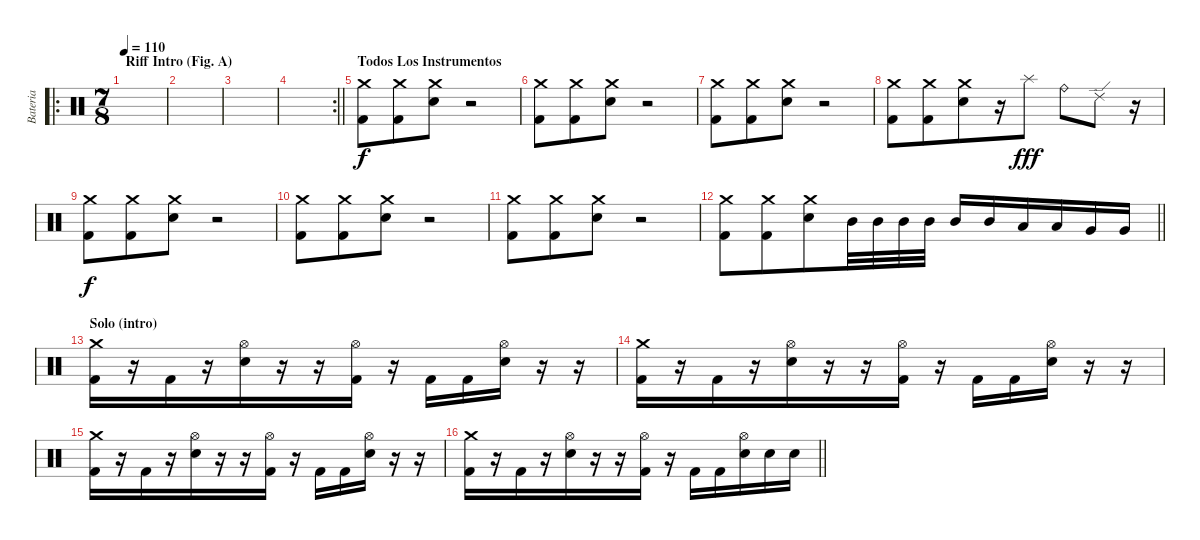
\track ("Bateria " "Bateria ") {instrument percussion}
\staff {score}
\articulation defaults
\ro
\ts (7 8)
\section ("" "Riff Intro (Fig. A)")
\tempo 110
\clef neutral
\ks c
|
|
|
\rc 2
\barLineRight lightlight
|
\section ("" "Todos Los Instrumentos")
("Crash medium (hit)" "Kick (hit) 2").8 ("Crash medium (hit)" "Kick (hit) 2").8 ("Crash medium (hit)" "Electric Snare (hit)").8 r.2 |
("Crash medium (hit)" "Kick (hit) 2").8 ("Crash medium (hit)" "Kick (hit) 2").8 ("Crash medium (hit)" "Electric Snare (hit)").8 r.2 |
("Crash medium (hit)" "Kick (hit) 2").8 ("Crash medium (hit)" "Kick (hit) 2").8 ("Crash medium (hit)" "Electric Snare (hit)").8 r.2 |
("Crash medium (hit)" "Kick (hit) 2").8 ("Crash medium (hit)" "Kick (hit) 2").8 ("Crash medium (hit)" "Electric Snare (hit)").8 r.16 "Splash (hit)".8{dy fff} "Ride (bell)".8 "Ride (edge) 2".8 r.16 |
("Crash medium (hit)" "Kick (hit) 2").8{dy f} ("Crash medium (hit)" "Kick (hit) 2").8 ("Crash medium (hit)" "Electric Snare (hit)").8 r.2 |
("Crash medium (hit)" "Kick (hit) 2").8 ("Crash medium (hit)" "Kick (hit) 2").8 ("Crash medium (hit)" "Electric Snare (hit)").8 r.2 |
("Crash medium (hit)" "Kick (hit) 2").8 ("Crash medium (hit)" "Kick (hit) 2").8 ("Crash medium (hit)" "Electric Snare (hit)").8 r.2 |
\barLineRight lightlight
("Crash medium (hit)" "Kick (hit) 2").8 ("Crash medium (hit)" "Kick (hit) 2").8 ("Crash medium (hit)" "Electric Snare (hit)").8 "Mid Tom (hit)".32 "Mid Tom (hit)".32 "Mid Tom (hit)".32 "Mid Tom (hit)".32 "Mid Tom (hit)".16 "Mid Tom (hit)".16 "Low Tom (hit)".16 "Low Tom (hit)".16 "Very Low Tom (hit)".16 "Very Low Tom (hit)".16 |
\section ("" "Solo (intro)")
("Crash medium (hit)" "Kick (hit) 2").16 r.16 "Kick (hit) 2".16 r.16 ("Hi-Hat (open)" "Electric Snare (hit)").16 r.16 r.16 ("Hi-Hat (open)" "Kick (hit) 2").16 r.16 "Kick (hit) 2".16 "Kick (hit) 2".16 ("Hi-Hat (open)" "Electric Snare (hit)").16 r.16 r.16 |
("Crash medium (hit)" "Kick (hit) 2").16 r.16 "Kick (hit) 2".16 r.16 ("Hi-Hat (open)" "Electric Snare (hit)").16 r.16 r.16 ("Hi-Hat (open)" "Kick (hit) 2").16 r.16 "Kick (hit) 2".16 "Kick (hit) 2".16 ("Hi-Hat (open)" "Electric Snare (hit)").16 r.16 r.16 |
("Crash medium (hit)" "Kick (hit) 2").16 r.16 "Kick (hit) 2".16 r.16 ("Hi-Hat (open)" "Electric Snare (hit)").16 r.16 r.16 ("Hi-Hat (open)" "Kick (hit) 2").16 r.16 "Kick (hit) 2".16 "Kick (hit) 2".16 ("Hi-Hat (open)" "Electric Snare (hit)").16 r.16 r.16 |
\barLineRight lightlight
("Crash medium (hit)" "Kick (hit) 2").16 r.16 "Kick (hit) 2".16 r.16 ("Hi-Hat (open)" "Electric Snare (hit)").16 r.16 r.16 ("Hi-Hat (open)" "Kick (hit) 2").16 r.16 "Kick (hit) 2".16 "Kick (hit) 2".16 ("Hi-Hat (open)" "Electric Snare (hit)").16 "Electric Snare (hit)".16 "Electric Snare (hit)".16
